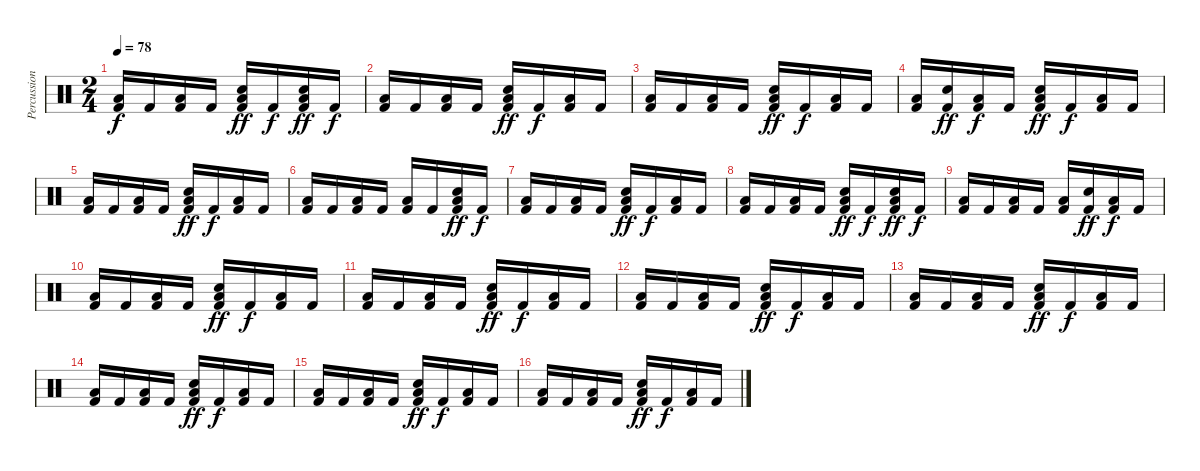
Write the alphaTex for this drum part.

\track ("Percussion" "Percussion") {instrument percussion}
\staff {score}
\articulation defaults
\ts (2 4)
\tempo 78
\clef neutral
\ks c
("Kick (hit) 2" "Low Tom (hit)").16{dy f} "Kick (hit) 2".16 ("Kick (hit) 2" "Low Tom (hit)").16 "Kick (hit) 2".16 ("Kick (hit) 2" "Snare (hit) 2" "Low Tom (hit)").16{dy ff} "Kick (hit) 2".16{dy f} ("Kick (hit) 2" "Snare (hit) 2" "Low Tom (hit)").16{dy ff} "Kick (hit) 2".16{dy f} |
("Kick (hit) 2" "Low Tom (hit)").16 "Kick (hit) 2".16 ("Kick (hit) 2" "Low Tom (hit)").16 "Kick (hit) 2".16 ("Kick (hit) 2" "Snare (hit) 2" "Low Tom (hit)").16{dy ff} "Kick (hit) 2".16{dy f} ("Kick (hit) 2" "Low Tom (hit)").16 "Kick (hit) 2".16 |
("Kick (hit) 2" "Low Tom (hit)").16 "Kick (hit) 2".16 ("Kick (hit) 2" "Low Tom (hit)").16 "Kick (hit) 2".16 ("Kick (hit) 2" "Snare (hit) 2" "Low Tom (hit)").16{dy ff} "Kick (hit) 2".16{dy f} ("Kick (hit) 2" "Low Tom (hit)").16 "Kick (hit) 2".16 |
("Kick (hit) 2" "Low Tom (hit)").16 ("Kick (hit) 2" "Snare (hit) 2").16{dy ff} ("Kick (hit) 2" "Low Tom (hit)").16{dy f} "Kick (hit) 2".16 ("Kick (hit) 2" "Snare (hit) 2" "Low Tom (hit)").16{dy ff} "Kick (hit) 2".16{dy f} ("Kick (hit) 2" "Low Tom (hit)").16 "Kick (hit) 2".16 |
("Kick (hit) 2" "Low Tom (hit)").16 "Kick (hit) 2".16 ("Kick (hit) 2" "Low Tom (hit)").16 "Kick (hit) 2".16 ("Kick (hit) 2" "Snare (hit) 2" "Low Tom (hit)").16{dy ff} "Kick (hit) 2".16{dy f} ("Kick (hit) 2" "Low Tom (hit)").16 "Kick (hit) 2".16 |
("Kick (hit) 2" "Low Tom (hit)").16 "Kick (hit) 2".16 ("Kick (hit) 2" "Low Tom (hit)").16 "Kick (hit) 2".16 ("Kick (hit) 2" "Low Tom (hit)").16 "Kick (hit) 2".16 ("Kick (hit) 2" "Snare (hit) 2" "Low Tom (hit)").16{dy ff} "Kick (hit) 2".16{dy f} |
("Kick (hit) 2" "Low Tom (hit)").16 "Kick (hit) 2".16 ("Kick (hit) 2" "Low Tom (hit)").16 "Kick (hit) 2".16 ("Kick (hit) 2" "Snare (hit) 2" "Low Tom (hit)").16{dy ff} "Kick (hit) 2".16{dy f} ("Kick (hit) 2" "Low Tom (hit)").16 "Kick (hit) 2".16 |
("Kick (hit) 2" "Low Tom (hit)").16 "Kick (hit) 2".16 ("Kick (hit) 2" "Low Tom (hit)").16 "Kick (hit) 2".16 ("Kick (hit) 2" "Snare (hit) 2" "Low Tom (hit)").16{dy ff} "Kick (hit) 2".16{dy f} ("Kick (hit) 2" "Snare (hit) 2" "Low Tom (hit)").16{dy ff} "Kick (hit) 2".16{dy f} |
("Kick (hit) 2" "Low Tom (hit)").16 "Kick (hit) 2".16 ("Kick (hit) 2" "Low Tom (hit)").16 "Kick (hit) 2".16 ("Kick (hit) 2" "Low Tom (hit)").16 ("Kick (hit) 2" "Snare (hit) 2").16{dy ff} ("Kick (hit) 2" "Low Tom (hit)").16{dy f} "Kick (hit) 2".16 |
("Kick (hit) 2" "Low Tom (hit)").16 "Kick (hit) 2".16 ("Kick (hit) 2" "Low Tom (hit)").16 "Kick (hit) 2".16 ("Kick (hit) 2" "Snare (hit) 2" "Low Tom (hit)").16{dy ff} "Kick (hit) 2".16{dy f} ("Kick (hit) 2" "Low Tom (hit)").16 "Kick (hit) 2".16 |
("Kick (hit) 2" "Low Tom (hit)").16 "Kick (hit) 2".16 ("Kick (hit) 2" "Low Tom (hit)").16 "Kick (hit) 2".16 ("Kick (hit) 2" "Snare (hit) 2" "Low Tom (hit)").16{dy ff} "Kick (hit) 2".16{dy f} ("Kick (hit) 2" "Low Tom (hit)").16 "Kick (hit) 2".16 |
("Kick (hit) 2" "Low Tom (hit)").16 "Kick (hit) 2".16 ("Kick (hit) 2" "Low Tom (hit)").16 "Kick (hit) 2".16 ("Kick (hit) 2" "Snare (hit) 2" "Low Tom (hit)").16{dy ff} "Kick (hit) 2".16{dy f} ("Kick (hit) 2" "Low Tom (hit)").16 "Kick (hit) 2".16 |
("Kick (hit) 2" "Low Tom (hit)").16 "Kick (hit) 2".16 ("Kick (hit) 2" "Low Tom (hit)").16 "Kick (hit) 2".16 ("Kick (hit) 2" "Snare (hit) 2" "Low Tom (hit)").16{dy ff} "Kick (hit) 2".16{dy f} ("Kick (hit) 2" "Low Tom (hit)").16 "Kick (hit) 2".16 |
("Kick (hit) 2" "Low Tom (hit)").16 "Kick (hit) 2".16 ("Kick (hit) 2" "Low Tom (hit)").16 "Kick (hit) 2".16 ("Kick (hit) 2" "Snare (hit) 2" "Low Tom (hit)").16{dy ff} "Kick (hit) 2".16{dy f} ("Kick (hit) 2" "Low Tom (hit)").16 "Kick (hit) 2".16 |
("Kick (hit) 2" "Low Tom (hit)").16 "Kick (hit) 2".16 ("Kick (hit) 2" "Low Tom (hit)").16 "Kick (hit) 2".16 ("Kick (hit) 2" "Snare (hit) 2" "Low Tom (hit)").16{dy ff} "Kick (hit) 2".16{dy f} ("Kick (hit) 2" "Low Tom (hit)").16 "Kick (hit) 2".16 |
("Kick (hit) 2" "Low Tom (hit)").16 "Kick (hit) 2".16 ("Kick (hit) 2" "Low Tom (hit)").16 "Kick (hit) 2".16 ("Kick (hit) 2" "Snare (hit) 2" "Low Tom (hit)").16{dy ff} "Kick (hit) 2".16{dy f} ("Kick (hit) 2" "Low Tom (hit)").16 "Kick (hit) 2".16
